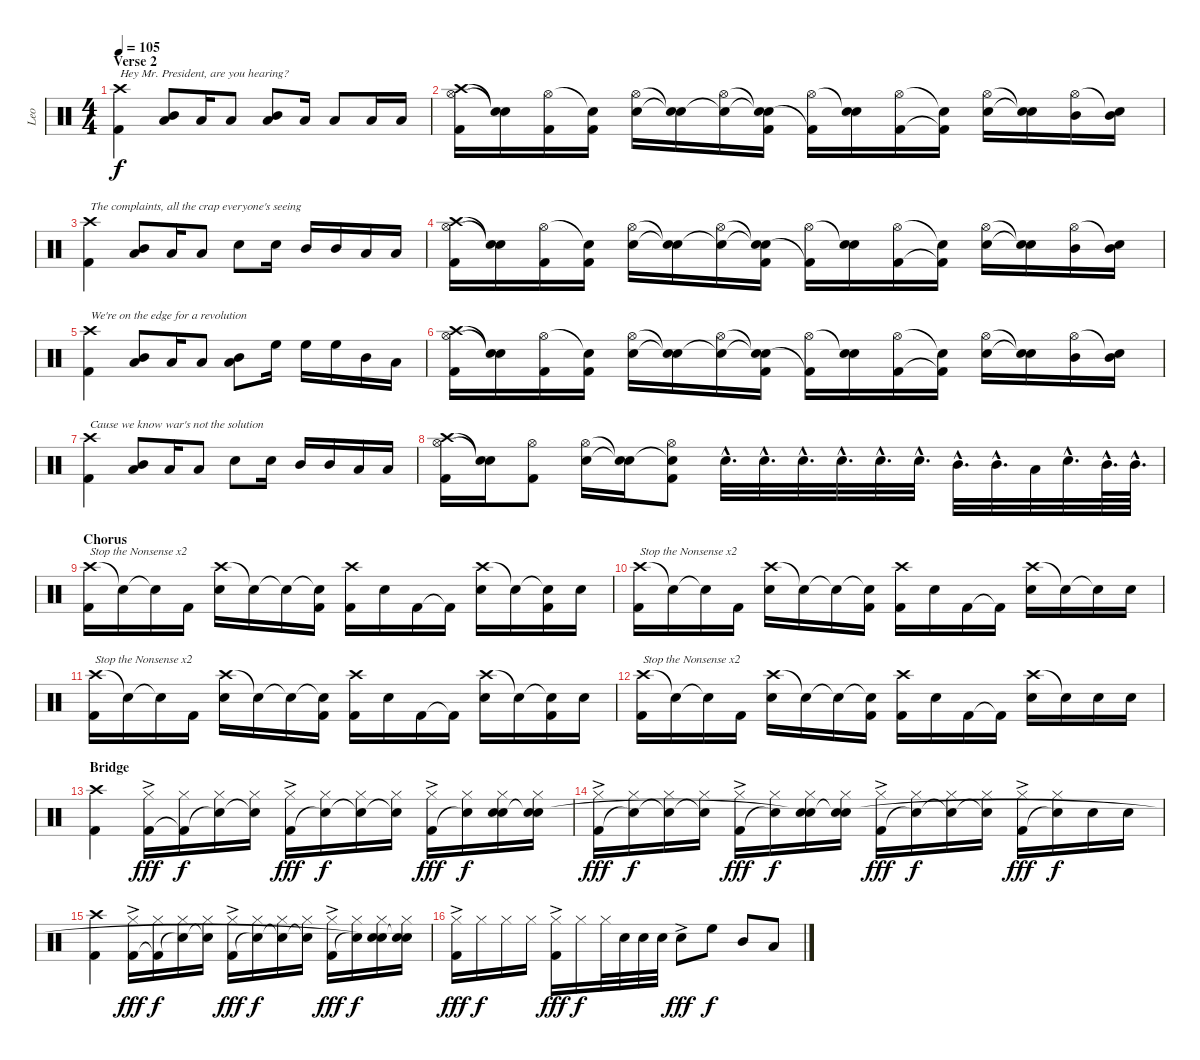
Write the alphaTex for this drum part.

\track ("Leo" "Leo") {instrument percussion}
\staff {score}
\articulation defaults
\ts (4 4)
\section ("" "Verse 2")
\tempo 105
\clef neutral
\ks c
("Crash high (hit)" "Kick (hit) 2").4{txt "Hey Mr. President, are you hearing?" dy f} ("Mid Tom (hit)" "Low Floor Tom (hit)").8 "Low Floor Tom (hit)".16 "Low Floor Tom (hit)".8 ("Mid Tom (hit)" "Low Floor Tom (hit)").8 "Low Floor Tom (hit)".16 "Low Floor Tom (hit)".8 "Low Floor Tom (hit)".16 "Low Floor Tom (hit)".16 |
("Hi-Hat (open)" "Crash high (hit)" "Kick (hit) 2").16 ("Snare (hit)"{t} "Snare (hit)"{t}).16 ("Hi-Hat (open)" "Kick (hit) 2").16 ("Snare (hit)"{t} "Kick (hit) 2").16 ("Hi-Hat (open)" "Snare (hit) 2").16 ("Snare (hit)"{t} "Snare (hit)"{t}).16 ("Hi-Hat (open)" "Snare (hit)"{t}).16 ("Snare (hit)"{t} "Snare (hit)"{t} "Kick (hit) 2").16 ("Hi-Hat (open)" "Kick (hit) 2"{t}).16 ("Snare (hit)"{t} "Snare (hit) 2").16 ("Hi-Hat (open)" "Kick (hit) 2").16 ("Snare (hit)"{t} "Kick (hit) 2"{t}).16 ("Hi-Hat (open)" "Snare (hit) 2").16 ("Snare (hit)"{t} "Snare (hit) 2"{t}).16 ("Hi-Hat (open)" "Mid Tom (hit)").16 ("Snare (hit)"{t} "Mid Tom (hit)").16 |
("Crash high (hit)" "Kick (hit) 2").4{txt "The complaints, all the crap everyone's seeing"} ("Mid Tom (hit)" "Low Floor Tom (hit)").8 "Low Floor Tom (hit)".16 "Low Floor Tom (hit)".8 "Snare (hit) 2".8 "Snare (hit) 2".16 "Mid Tom (hit)".16 "Mid Tom (hit)".16 "Low Floor Tom (hit)".16 "Low Floor Tom (hit)".16 |
("Hi-Hat (open)" "Crash high (hit)" "Kick (hit) 2").16 ("Snare (hit)"{t} "Snare (hit)"{t}).16 ("Hi-Hat (open)" "Kick (hit) 2").16 ("Snare (hit)"{t} "Kick (hit) 2").16 ("Hi-Hat (open)" "Snare (hit) 2").16 ("Snare (hit)"{t} "Snare (hit)"{t}).16 ("Hi-Hat (open)" "Snare (hit)"{t}).16 ("Snare (hit)"{t} "Snare (hit)"{t} "Kick (hit) 2").16 ("Hi-Hat (open)" "Kick (hit) 2"{t}).16 ("Snare (hit)"{t} "Snare (hit) 2").16 ("Hi-Hat (open)" "Kick (hit) 2").16 ("Snare (hit)"{t} "Kick (hit) 2"{t}).16 ("Hi-Hat (open)" "Snare (hit) 2").16 ("Snare (hit)"{t} "Snare (hit) 2"{t}).16 ("Hi-Hat (open)" "Mid Tom (hit)").16 ("Snare (hit)"{t} "Mid Tom (hit)").16 |
("Crash high (hit)" "Kick (hit) 2").4{txt "We're on the edge for a revolution"} ("Mid Tom (hit)" "Low Floor Tom (hit)").8 "Low Floor Tom (hit)".16 "Low Floor Tom (hit)".8 ("Mid Tom (hit)" "Low Floor Tom (hit)").8 "High Floor Tom (hit)".16 "High Floor Tom (hit)".16 "High Floor Tom (hit)".16 "Mid Tom (hit)".16 "Low Floor Tom (hit)".16 |
("Hi-Hat (open)" "Crash high (hit)" "Kick (hit) 2").16 ("Snare (hit)"{t} "Snare (hit)"{t}).16 ("Hi-Hat (open)" "Kick (hit) 2").16 ("Snare (hit)"{t} "Kick (hit) 2").16 ("Hi-Hat (open)" "Snare (hit) 2").16 ("Snare (hit)"{t} "Snare (hit)"{t}).16 ("Hi-Hat (open)" "Snare (hit)"{t}).16 ("Snare (hit)"{t} "Snare (hit)"{t} "Kick (hit) 2").16 ("Hi-Hat (open)" "Kick (hit) 2"{t}).16 ("Snare (hit)"{t} "Snare (hit) 2").16 ("Hi-Hat (open)" "Kick (hit) 2").16 ("Snare (hit)"{t} "Kick (hit) 2"{t}).16 ("Hi-Hat (open)" "Snare (hit) 2").16 ("Snare (hit)"{t} "Snare (hit) 2"{t}).16 ("Hi-Hat (open)" "Mid Tom (hit)").16 ("Snare (hit)"{t} "Mid Tom (hit)").16 |
("Crash high (hit)" "Kick (hit) 2").4{txt "Cause we know war's not the solution"} ("Mid Tom (hit)" "Low Floor Tom (hit)").8 "Low Floor Tom (hit)".16 "Low Floor Tom (hit)".8 "Snare (hit) 2".8 "Snare (hit) 2".16 "Mid Tom (hit)".16 "Mid Tom (hit)".16 "Low Floor Tom (hit)".16 "Low Floor Tom (hit)".16 |
("Hi-Hat (open)" "Crash high (hit)" "Kick (hit) 2").16 ("Snare (hit)"{t} "Snare (hit)"{t}).16 ("Hi-Hat (open)" "Kick (hit) 2").8 ("Hi-Hat (open)" "Snare (hit) 2").16 ("Snare (hit)"{t} "Snare (hit)"{t}).16 ("Hi-Hat (open)" "Snare (hit)"{t} "Kick (hit) 2").8 "Snare (hit) 2"{hac}.32{d} "Snare (hit) 2"{hac}.32{d} "Snare (hit) 2"{hac}.32{d} "Snare (hit) 2"{hac}.32{d} "Snare (hit) 2"{hac}.32{d} "Snare (hit) 2"{hac}.32{d} "Mid Tom (hit)"{hac}.32{d} "Mid Tom (hit)"{hac}.32{d} "Low Floor Tom (hit)".32 "Snare (hit) 2"{hac}.32{d} "Mid Tom (hit)"{hac}.64{d} "Mid Tom (hit)"{hac}.64{d} |
\section ("" "Chorus")
("Crash high (hit)" "Kick (hit) 2").16{txt "Stop the Nonsense x2"} "Snare (hit)"{t}.16 "Snare (hit)"{t}.16 "Kick (hit) 2".16 ("Crash high (hit)" "Snare (hit) 2").16 "Snare (hit)"{t}.16 "Snare (hit)"{t}.16 ("Snare (hit)"{t} "Kick (hit) 2").16 ("Crash high (hit)" "Kick (hit) 2").16 "Snare (hit) 2".16 "Kick (hit) 2".16 "Kick (hit) 2"{t}.16 ("Crash high (hit)" "Snare (hit) 2").16 "Snare (hit) 2"{t}.16 ("Snare (hit)"{t} "Kick (hit) 2").16 "Snare (hit) 2".16 |
("Crash high (hit)" "Kick (hit) 2").16{txt "Stop the Nonsense x2"} "Snare (hit)"{t}.16 "Snare (hit)"{t}.16 "Kick (hit) 2".16 ("Crash high (hit)" "Snare (hit) 2").16 "Snare (hit)"{t}.16 "Snare (hit)"{t}.16 ("Snare (hit)"{t} "Kick (hit) 2").16 ("Crash high (hit)" "Kick (hit) 2").16 "Snare (hit) 2".16 "Kick (hit) 2".16 "Kick (hit) 2"{t}.16 ("Crash high (hit)" "Snare (hit) 2").16 "Snare (hit) 2"{t}.16 "Snare (hit)"{t}.16 "Snare (hit) 2".16 |
("Crash high (hit)" "Kick (hit) 2").16{txt "Stop the Nonsense x2"} "Snare (hit)"{t}.16 "Snare (hit)"{t}.16 "Kick (hit) 2".16 ("Crash high (hit)" "Snare (hit) 2").16 "Snare (hit)"{t}.16 "Snare (hit)"{t}.16 ("Snare (hit)"{t} "Kick (hit) 2").16 ("Crash high (hit)" "Kick (hit) 2").16 "Snare (hit) 2".16 "Kick (hit) 2".16 "Kick (hit) 2"{t}.16 ("Crash high (hit)" "Snare (hit) 2").16 "Snare (hit) 2"{t}.16 ("Snare (hit)"{t} "Kick (hit) 2").16 "Snare (hit) 2".16 |
("Crash high (hit)" "Kick (hit) 2").16{txt "Stop the Nonsense x2"} "Snare (hit)"{t}.16 "Snare (hit)"{t}.16 "Kick (hit) 2".16 ("Crash high (hit)" "Snare (hit) 2").16 "Snare (hit)"{t}.16 "Snare (hit)"{t}.16 ("Snare (hit)"{t} "Kick (hit) 2").16 ("Crash high (hit)" "Kick (hit) 2").16 "Snare (hit) 2".16 "Kick (hit) 2".16 "Kick (hit) 2"{t}.16 ("Crash high (hit)" "Snare (hit) 2").16 "Snare (hit) 2"{t}.16 "Snare (hit) 2".16 "Snare (hit) 2".16 |
\section ("" "Bridge")
("Crash high (hit)" "Kick (hit) 2").4 ("Hi-Hat (closed)"{ac} "Kick (hit) 2").16{dy fff} ("Hi-Hat (closed)" "Kick (hit) 2"{t}).16{dy f} ("Hi-Hat (closed)" "Snare (hit)"{t}).16 ("Hi-Hat (closed)" "Snare (hit)"{t}).16 ("Hi-Hat (closed)"{ac} "Kick (hit) 2").16{dy fff} ("Hi-Hat (closed)" "Snare (hit)"{t}).16{dy f} ("Hi-Hat (closed)" "Snare (hit)"{t}).16 ("Hi-Hat (closed)" "Snare (hit)"{t}).16 ("Hi-Hat (closed)"{ac} "Kick (hit) 2").16{dy fff} ("Hi-Hat (closed)" "Snare (hit)"{t}).16{dy f} ("Hi-Hat (closed)" "Snare (hit) 2" "Snare (hit)").16 ("Hi-Hat (closed)" "Snare (hit) 2" "Snare (hit)"{t}).16 |
("Hi-Hat (closed)"{ac} "Kick (hit) 2").16{dy fff} ("Hi-Hat (closed)" "Snare (hit)"{t}).16{dy f} ("Hi-Hat (closed)" "Snare (hit)"{t}).16 ("Hi-Hat (closed)" "Snare (hit)"{t}).16 ("Hi-Hat (closed)"{ac} "Kick (hit) 2").16{dy fff} ("Hi-Hat (closed)" "Snare (hit)"{t}).16{dy f} ("Hi-Hat (closed)" "Snare (hit) 2" "Snare (hit)"{t}).16 ("Hi-Hat (closed)" "Snare (hit) 2" "Snare (hit)"{t}).16 ("Hi-Hat (closed)"{ac} "Kick (hit) 2").16{dy fff} ("Hi-Hat (closed)" "Snare (hit)"{t}).16{dy f} ("Hi-Hat (closed)" "Snare (hit)"{t}).16 ("Hi-Hat (closed)" "Snare (hit)"{t}).16 ("Hi-Hat (closed)"{ac} "Kick (hit) 2").16{dy fff} ("Hi-Hat (closed)" "Snare (hit)"{t}).16{dy f} "Snare (hit) 2".16 "Snare (hit) 2".16 |
("Crash high (hit)" "Kick (hit) 2").4 ("Hi-Hat (closed)"{ac} "Kick (hit) 2").16{dy fff} ("Hi-Hat (closed)" "Kick (hit) 2"{t}).16{dy f} ("Hi-Hat (closed)" "Snare (hit)"{t}).16 ("Hi-Hat (closed)" "Snare (hit)"{t}).16 ("Hi-Hat (closed)"{ac} "Kick (hit) 2").16{dy fff} ("Hi-Hat (closed)" "Snare (hit)"{t}).16{dy f} ("Hi-Hat (closed)" "Snare (hit)"{t}).16 ("Hi-Hat (closed)" "Snare (hit)"{t}).16 ("Hi-Hat (closed)"{ac} "Kick (hit) 2").16{dy fff} ("Hi-Hat (closed)" "Snare (hit)"{t}).16{dy f} ("Hi-Hat (closed)" "Snare (hit) 2" "Snare (hit)"{t}).16 ("Hi-Hat (closed)" "Snare (hit) 2" "Snare (hit)"{t}).16 |
("Hi-Hat (closed)"{ac} "Kick (hit) 2").16{dy fff} "Hi-Hat (closed)".16{dy f} "Hi-Hat (closed)".16 "Hi-Hat (closed)".16 ("Hi-Hat (closed)"{ac} "Kick (hit) 2").16{dy fff} "Hi-Hat (closed)".16{dy f} "Hi-Hat (closed)".32 "Snare (hit) 2".32 "Snare (hit) 2".32 "Snare (hit) 2".32 "Snare (hit) 2"{ac}.8{dy fff} "High Floor Tom (hit)".8{dy f} "Mid Tom (hit)".8 "Low Floor Tom (hit)".8
